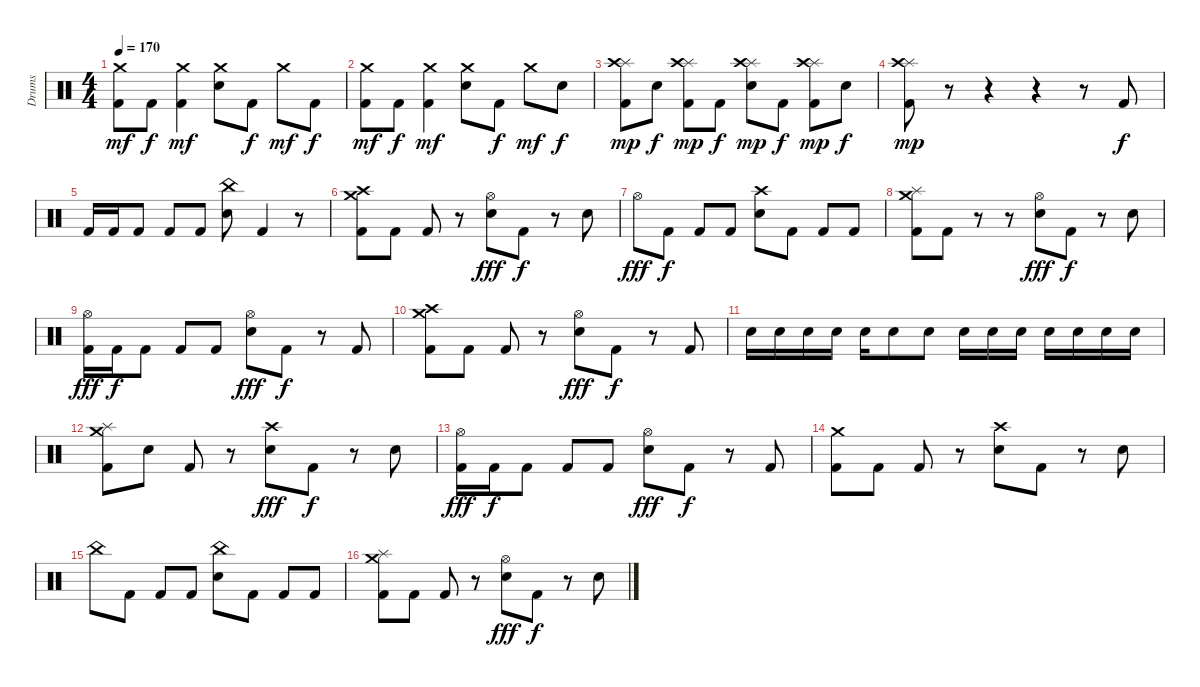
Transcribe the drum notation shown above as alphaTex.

\track ("Drums" "Drums") {instrument percussion}
\staff {score}
\articulation defaults
\ts (4 4)
\tempo 170
\clef neutral
\ks c
("Crash medium (hit)" "Kick (hit) 2").8{dy mf} "Kick (hit) 2".8{dy f} ("Crash medium (hit)" "Kick (hit) 2").4{dy mf} ("Crash medium (hit)" "Electric Snare (hit)").8 "Kick (hit) 2".8{dy f} "Crash medium (hit)".8{dy mf} "Kick (hit) 2".8{dy f} |
("Crash medium (hit)" "Kick (hit) 2").8{dy mf} "Kick (hit) 2".8{dy f} ("Crash medium (hit)" "Kick (hit) 2").4{dy mf} ("Crash medium (hit)" "Electric Snare (hit)").8 "Kick (hit) 2".8{dy f} "Crash medium (hit)".8{dy mf} "Electric Snare (hit)".8{dy f} |
("Splash (hit)" "Crash high (hit)" "Kick (hit) 2").8{dy mp} "Electric Snare (hit)".8{dy f} ("Splash (hit)" "Crash high (hit)" "Kick (hit) 2").8{dy mp} "Kick (hit) 2".8{dy f} ("Splash (hit)" "Crash high (hit)" "Electric Snare (hit)").8{dy mp} "Kick (hit) 2".8{dy f} ("Splash (hit)" "Crash high (hit)" "Kick (hit) 2").8{dy mp} "Electric Snare (hit)".8{dy f} |
("Splash (hit)" "Crash high (hit)" "Kick (hit) 2").8{dy mp} r.8 r.4 r.4 r.8 "Kick (hit) 2".8{dy f} |
"Kick (hit) 2".16 "Kick (hit) 2".16 "Kick (hit) 2".8 "Kick (hit) 2".8 "Kick (hit) 2".8 ("China (hit)" "Electric Snare (hit)").8 "Kick (hit) 2".4 r.8 |
("Crash medium (hit)" "Crash high (hit)" "Kick (hit) 2").8 "Kick (hit) 2".8 "Kick (hit) 2".8 r.8 ("Hi-Hat (open)" "Electric Snare (hit)").8{dy fff} "Kick (hit) 2".8{dy f} r.8 "Electric Snare (hit)".8 |
"Hi-Hat (open)".8{dy fff} "Kick (hit) 2".8{dy f} "Kick (hit) 2".8 "Kick (hit) 2".8 ("Crash high (hit)" "Electric Snare (hit)").8 "Kick (hit) 2".8 "Kick (hit) 2".8 "Kick (hit) 2".8 |
("Crash medium (hit)" "Splash (hit)" "Kick (hit) 2").8 "Kick (hit) 2".8 r.8 r.8 ("Hi-Hat (open)" "Electric Snare (hit)").8{dy fff} "Kick (hit) 2".8{dy f} r.8 "Electric Snare (hit)".8 |
("Hi-Hat (open)" "Kick (hit) 2").16{dy fff} "Kick (hit) 2".16{dy f} "Kick (hit) 2".8 "Kick (hit) 2".8 "Kick (hit) 2".8 ("Hi-Hat (open)" "Electric Snare (hit)").8{dy fff} "Kick (hit) 2".8{dy f} r.8 "Kick (hit) 2".8 |
("Crash medium (hit)" "Crash high (hit)" "Kick (hit) 2").8 "Kick (hit) 2".8 "Kick (hit) 2".8 r.8 ("Hi-Hat (open)" "Electric Snare (hit)").8{dy fff} "Kick (hit) 2".8{dy f} r.8 "Kick (hit) 2".8 |
"Electric Snare (hit)".16 "Electric Snare (hit)".16 "Electric Snare (hit)".16 "Electric Snare (hit)".16 "Electric Snare (hit)".16 "Electric Snare (hit)".8 "Electric Snare (hit)".8 "Electric Snare (hit)".16 "Electric Snare (hit)".16 "Electric Snare (hit)".16 "Electric Snare (hit)".16 "Electric Snare (hit)".16 "Electric Snare (hit)".16 "Electric Snare (hit)".16 |
("Crash medium (hit)" "Splash (hit)" "Kick (hit) 2").8 "Electric Snare (hit)".8 "Kick (hit) 2".8 r.8 ("Crash high (hit)" "Electric Snare (hit)").8{dy fff} "Kick (hit) 2".8{dy f} r.8 "Electric Snare (hit)".8 |
("Hi-Hat (open)" "Kick (hit) 2").16{dy fff} "Kick (hit) 2".16{dy f} "Kick (hit) 2".8 "Kick (hit) 2".8 "Kick (hit) 2".8 ("Hi-Hat (open)" "Electric Snare (hit)").8{dy fff} "Kick (hit) 2".8{dy f} r.8 "Kick (hit) 2".8 |
("Crash medium (hit)" "Kick (hit) 2").8 "Kick (hit) 2".8 "Kick (hit) 2".8 r.8 ("Crash high (hit)" "Electric Snare (hit)").8 "Kick (hit) 2".8 r.8 "Electric Snare (hit)".8 |
"China (hit)".8 "Kick (hit) 2".8 "Kick (hit) 2".8 "Kick (hit) 2".8 ("China (hit)" "Electric Snare (hit)").8 "Kick (hit) 2".8 "Kick (hit) 2".8 "Kick (hit) 2".8 |
("Crash medium (hit)" "Splash (hit)" "Kick (hit) 2").8 "Kick (hit) 2".8 "Kick (hit) 2".8 r.8 ("Hi-Hat (open)" "Electric Snare (hit)").8{dy fff} "Kick (hit) 2".8{dy f} r.8 "Electric Snare (hit)".8
